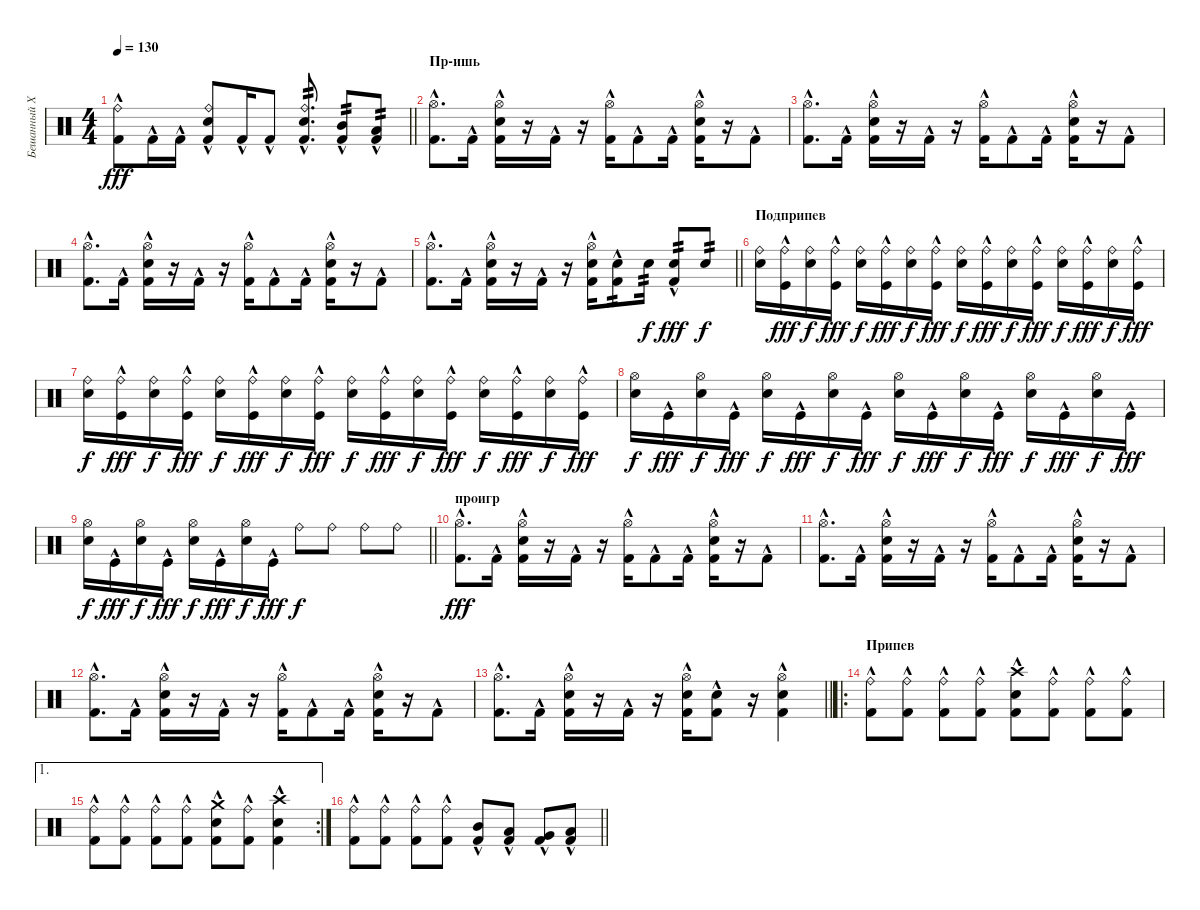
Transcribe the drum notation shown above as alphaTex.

\track ("Бешанный Харек" "Бешанный Х") {instrument percussion}
\staff {score}
\articulation defaults
\ts (4 4)
\tempo 130
\clef neutral
\barLineRight lightlight
\ks c
("Kick (hit) 2"{hac} "Ride (bell)").8{dy fff} "Kick (hit) 2"{hac}.16 "Kick (hit) 2"{hac}.16 ("Kick (hit) 2"{hac} "Snare (hit) 2" "Ride (bell)").8 "Kick (hit) 2"{hac}.16 "Kick (hit) 2"{hac}.8 ("Kick (hit) 2"{hac} "Snare (hit) 2" "Ride (bell)").8{d tp 2} ("Kick (hit) 2"{hac} "Mid Tom (hit)").8{tp 2} ("Kick (hit) 2"{hac} "Low Tom (hit)").8{tp 2} |
\section ("" "Пр-ишь")
("Kick (hit) 2"{hac} "Hi-Hat (open)").8{d} "Kick (hit) 2"{hac}.16 ("Kick (hit) 2"{hac} "Snare (hit) 2" "Hi-Hat (open)").16 r.16 "Kick (hit) 2"{hac}.16 r.16 ("Kick (hit) 2"{hac} "Hi-Hat (open)").16 "Kick (hit) 2"{hac}.8 "Kick (hit) 2"{hac}.16 ("Kick (hit) 2"{hac} "Snare (hit) 2" "Hi-Hat (open)").16 r.16 "Kick (hit) 2"{hac}.8 |
("Kick (hit) 2"{hac} "Hi-Hat (open)").8{d} "Kick (hit) 2"{hac}.16 ("Kick (hit) 2"{hac} "Snare (hit) 2" "Hi-Hat (open)").16 r.16 "Kick (hit) 2"{hac}.16 r.16 ("Kick (hit) 2"{hac} "Hi-Hat (open)").16 "Kick (hit) 2"{hac}.8 "Kick (hit) 2"{hac}.16 ("Kick (hit) 2"{hac} "Snare (hit) 2" "Hi-Hat (open)").16 r.16 "Kick (hit) 2"{hac}.8 |
("Kick (hit) 2"{hac} "Hi-Hat (open)").8{d} "Kick (hit) 2"{hac}.16 ("Kick (hit) 2"{hac} "Snare (hit) 2" "Hi-Hat (open)").16 r.16 "Kick (hit) 2"{hac}.16 r.16 ("Kick (hit) 2"{hac} "Hi-Hat (open)").16 "Kick (hit) 2"{hac}.8 "Kick (hit) 2"{hac}.16 ("Kick (hit) 2"{hac} "Snare (hit) 2" "Hi-Hat (open)").16 r.16 "Kick (hit) 2"{hac}.8 |
\barLineRight lightlight
("Kick (hit) 2"{hac} "Hi-Hat (open)").8{d} "Kick (hit) 2"{hac}.16 ("Kick (hit) 2"{hac} "Snare (hit) 2" "Hi-Hat (open)").16 r.16 "Kick (hit) 2"{hac}.16 r.16 ("Kick (hit) 2"{hac} "Snare (hit) 2" "Hi-Hat (open)").16 ("Kick (hit) 2"{hac} "Snare (hit) 2").8{tp 2} "Snare (hit) 2".16{tp 2 dy f} ("Kick (hit) 2"{hac} "Snare (hit) 2").8{tp 2 dy fff} "Snare (hit) 2".8{tp 2 dy f} |
\section ("" "Подприпев")
("Ride (bell)" "Snare (hit) 2").16 ("Ride (bell)" "Kick (hit)"{hac}).16{dy fff} ("Ride (bell)" "Snare (hit) 2").16{dy f} ("Ride (bell)" "Kick (hit)"{hac}).16{dy fff} ("Ride (bell)" "Snare (hit) 2").16{dy f} ("Ride (bell)" "Kick (hit)"{hac}).16{dy fff} ("Ride (bell)" "Snare (hit) 2").16{dy f} ("Ride (bell)" "Kick (hit)"{hac}).16{dy fff} ("Ride (bell)" "Snare (hit) 2").16{dy f} ("Ride (bell)" "Kick (hit)"{hac}).16{dy fff} ("Ride (bell)" "Snare (hit) 2").16{dy f} ("Ride (bell)" "Kick (hit)"{hac}).16{dy fff} ("Ride (bell)" "Snare (hit) 2").16{dy f} ("Ride (bell)" "Kick (hit)"{hac}).16{dy fff} ("Ride (bell)" "Snare (hit) 2").16{dy f} ("Ride (bell)" "Kick (hit)"{hac}).16{dy fff} |
("Ride (bell)" "Snare (hit) 2").16{dy f} ("Ride (bell)" "Kick (hit)"{hac}).16{dy fff} ("Ride (bell)" "Snare (hit) 2").16{dy f} ("Ride (bell)" "Kick (hit)"{hac}).16{dy fff} ("Ride (bell)" "Snare (hit) 2").16{dy f} ("Ride (bell)" "Kick (hit)"{hac}).16{dy fff} ("Ride (bell)" "Snare (hit) 2").16{dy f} ("Ride (bell)" "Kick (hit)"{hac}).16{dy fff} ("Ride (bell)" "Snare (hit) 2").16{dy f} ("Ride (bell)" "Kick (hit)"{hac}).16{dy fff} ("Ride (bell)" "Snare (hit) 2").16{dy f} ("Ride (bell)" "Kick (hit)"{hac}).16{dy fff} ("Ride (bell)" "Snare (hit) 2").16{dy f} ("Ride (bell)" "Kick (hit)"{hac}).16{dy fff} ("Ride (bell)" "Snare (hit) 2").16{dy f} ("Ride (bell)" "Kick (hit)"{hac}).16{dy fff} |
("Hi-Hat (open)" "Snare (hit) 2").16{dy f} "Kick (hit)"{hac}.16{dy fff} ("Hi-Hat (open)" "Snare (hit) 2").16{dy f} "Kick (hit)"{hac}.16{dy fff} ("Hi-Hat (open)" "Snare (hit) 2").16{dy f} "Kick (hit)"{hac}.16{dy fff} ("Hi-Hat (open)" "Snare (hit) 2").16{dy f} "Kick (hit)"{hac}.16{dy fff} ("Hi-Hat (open)" "Snare (hit) 2").16{dy f} "Kick (hit)"{hac}.16{dy fff} ("Hi-Hat (open)" "Snare (hit) 2").16{dy f} "Kick (hit)"{hac}.16{dy fff} ("Hi-Hat (open)" "Snare (hit) 2").16{dy f} "Kick (hit)"{hac}.16{dy fff} ("Hi-Hat (open)" "Snare (hit) 2").16{dy f} "Kick (hit)"{hac}.16{dy fff} |
\barLineRight lightlight
("Hi-Hat (open)" "Snare (hit) 2").16{dy f} "Kick (hit)"{hac}.16{dy fff} ("Hi-Hat (open)" "Snare (hit) 2").16{dy f} "Kick (hit)"{hac}.16{dy fff} ("Hi-Hat (open)" "Snare (hit) 2").16{dy f} "Kick (hit)"{hac}.16{dy fff} ("Hi-Hat (open)" "Snare (hit) 2").16{dy f} "Kick (hit)"{hac}.16{dy fff} "Ride (bell)".8{dy f} "Ride (bell)".8 "Ride (bell)".8 "Ride (bell)".8 |
\section ("" "проигр")
("Kick (hit) 2"{hac} "Hi-Hat (open)").8{d dy fff} "Kick (hit) 2"{hac}.16 ("Kick (hit) 2"{hac} "Snare (hit) 2" "Hi-Hat (open)").16 r.16 "Kick (hit) 2"{hac}.16 r.16 ("Kick (hit) 2"{hac} "Hi-Hat (open)").16 "Kick (hit) 2"{hac}.8 "Kick (hit) 2"{hac}.16 ("Kick (hit) 2"{hac} "Snare (hit) 2" "Hi-Hat (open)").16 r.16 "Kick (hit) 2"{hac}.8 |
("Kick (hit) 2"{hac} "Hi-Hat (open)").8{d} "Kick (hit) 2"{hac}.16 ("Kick (hit) 2"{hac} "Snare (hit) 2" "Hi-Hat (open)").16 r.16 "Kick (hit) 2"{hac}.16 r.16 ("Kick (hit) 2"{hac} "Hi-Hat (open)").16 "Kick (hit) 2"{hac}.8 "Kick (hit) 2"{hac}.16 ("Kick (hit) 2"{hac} "Snare (hit) 2" "Hi-Hat (open)").16 r.16 "Kick (hit) 2"{hac}.8 |
("Kick (hit) 2"{hac} "Hi-Hat (open)").8{d} "Kick (hit) 2"{hac}.16 ("Kick (hit) 2"{hac} "Snare (hit) 2" "Hi-Hat (open)").16 r.16 "Kick (hit) 2"{hac}.16 r.16 ("Kick (hit) 2"{hac} "Hi-Hat (open)").16 "Kick (hit) 2"{hac}.8 "Kick (hit) 2"{hac}.16 ("Kick (hit) 2"{hac} "Snare (hit) 2" "Hi-Hat (open)").16 r.16 "Kick (hit) 2"{hac}.8 |
\barLineRight lightlight
("Kick (hit) 2"{hac} "Hi-Hat (open)").8{d} "Kick (hit) 2"{hac}.16 ("Kick (hit) 2"{hac} "Snare (hit) 2" "Hi-Hat (open)").16 r.16 "Kick (hit) 2"{hac}.16 r.16 ("Kick (hit) 2"{hac} "Snare (hit) 2" "Hi-Hat (open)").16 ("Kick (hit) 2"{hac} "Snare (hit) 2").8 r.16 ("Kick (hit) 2"{hac} "Snare (hit) 2" "Hi-Hat (open)").4 |
\ro
\section ("" "Припев")
("Kick (hit) 2"{hac} "Ride (bell)").8 ("Kick (hit) 2"{hac} "Ride (bell)").8 ("Kick (hit) 2"{hac} "Ride (bell)").8 ("Kick (hit) 2"{hac} "Ride (bell)").8 ("Kick (hit) 2"{hac} "Crash high (hit)" "Snare (hit) 2").8 ("Kick (hit) 2"{hac} "Ride (bell)").8 ("Kick (hit) 2"{hac} "Ride (bell)").8 ("Kick (hit) 2"{hac} "Ride (bell)").8 |
\ae 1
\rc 2
("Kick (hit) 2"{hac} "Ride (bell)").8 ("Kick (hit) 2"{hac} "Ride (bell)").8 ("Kick (hit) 2"{hac} "Ride (bell)").8 ("Kick (hit) 2"{hac} "Ride (bell)").8 ("Kick (hit) 2"{hac} "Crash medium (hit)" "Snare (hit) 2").8 ("Kick (hit) 2"{hac} "Ride (bell)").8 ("Kick (hit) 2"{hac} "Crash high (hit)" "Snare (hit) 2").4 |
\barLineRight lightlight
("Kick (hit) 2"{hac} "Ride (bell)").8 ("Kick (hit) 2"{hac} "Ride (bell)").8 ("Kick (hit) 2"{hac} "Ride (bell)").8 ("Kick (hit) 2"{hac} "Ride (bell)").8 ("Kick (hit) 2"{hac} "Mid Tom (hit)").8 ("Kick (hit) 2"{hac} "Low Tom (hit)").8 ("Kick (hit) 2"{hac} "Very Low Tom (hit)").8 ("Kick (hit) 2"{hac} "Low Floor Tom (hit)").8
